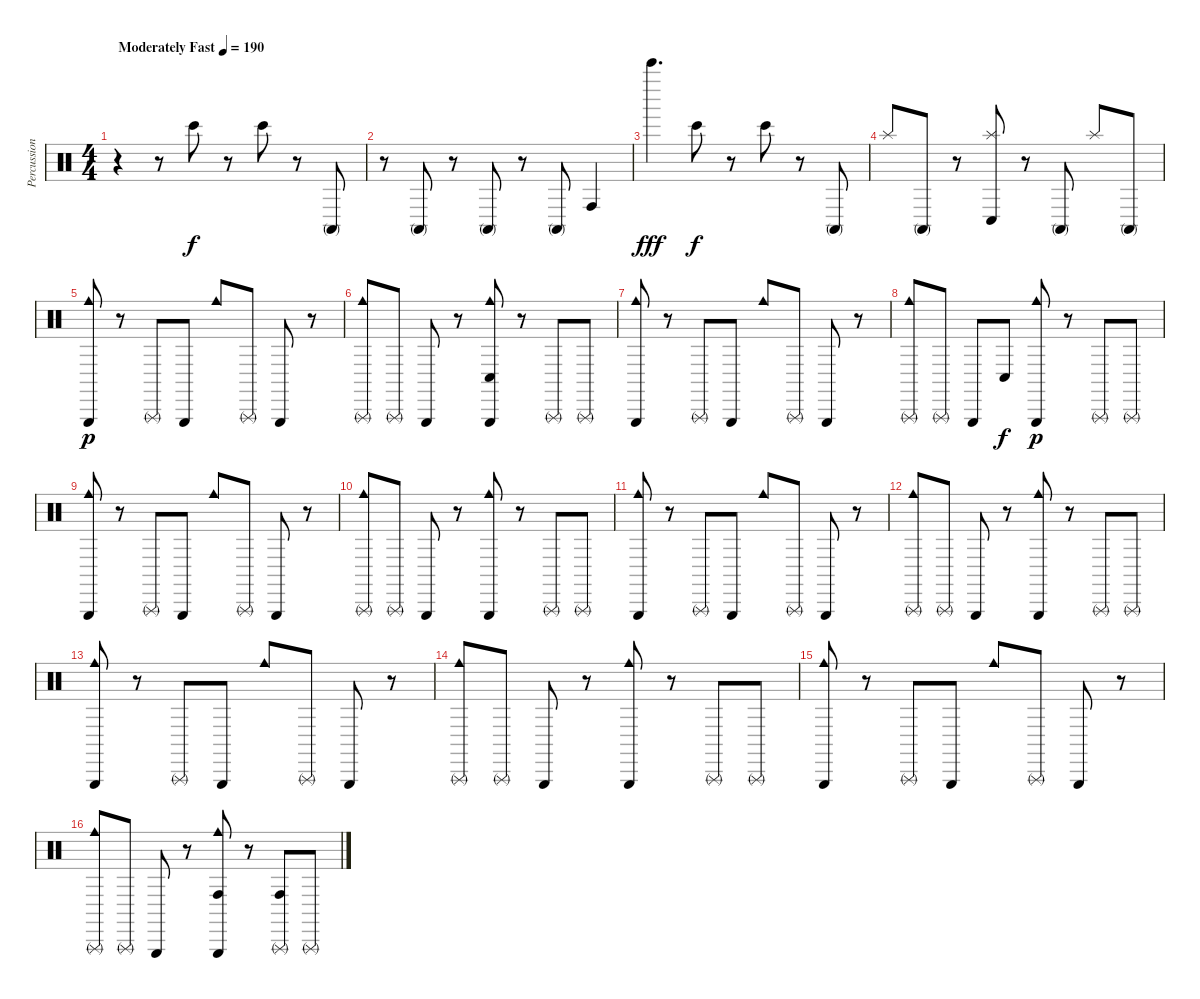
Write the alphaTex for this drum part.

\track ("Percussion" "Percussion") {instrument percussion}
\staff {score}
\articulation defaults
\ts (4 4)
\tempo (190 "Moderately Fast")
\clef neutral
\ks c
r.4{dy f} r.8 "Bongo High (hit)".8 r.8 "Bongo High (hit)".8 r.8 "Conga high (mute)".8 |
r.8 "Conga high (mute)".8 r.8 "Conga high (mute)".8 r.8 "Conga high (mute)".8 "Conga high (hit)".4 |
"Bell Tree (hit)".4{d dy fff} "Bongo High (hit)".8{dy f} r.8 "Bongo High (hit)".8 r.8 "Conga high (mute)".8 |
"Splash (hit)".8 "Conga high (mute)".8 r.8 ("Splash (hit)" "Conga low (hit)").8 r.8 "Conga high (mute)".8 "Splash (hit)".8 "Conga high (mute)".8 |
("Cowbell medium (hit)" "Triangle (hit)").8{dy p} r.8 "Triangle (rnute)".8 "Triangle (hit)".8 "Cowbell medium (hit)".8 "Triangle (rnute)".8 "Triangle (hit)".8 r.8 |
("Cowbell medium (hit)" "Triangle (rnute)").8 "Triangle (rnute)".8 "Triangle (hit)".8 r.8 ("Conga low (hit)" "Cowbell medium (hit)" "Triangle (hit)").8 r.8 "Triangle (rnute)".8 "Triangle (rnute)".8 |
("Cowbell medium (hit)" "Triangle (hit)").8 r.8 "Triangle (rnute)".8 "Triangle (hit)".8 "Cowbell medium (hit)".8 "Triangle (rnute)".8 "Triangle (hit)".8 r.8 |
("Cowbell medium (hit)" "Triangle (rnute)").8 "Triangle (rnute)".8 "Triangle (hit)".8 "Conga low (hit)".8{dy f} ("Cowbell medium (hit)" "Triangle (hit)").8{dy p} r.8 "Triangle (rnute)".8 "Triangle (rnute)".8 |
("Cowbell medium (hit)" "Triangle (hit)").8 r.8 "Triangle (rnute)".8 "Triangle (hit)".8 "Cowbell medium (hit)".8 "Triangle (rnute)".8 "Triangle (hit)".8 r.8 |
("Cowbell medium (hit)" "Triangle (rnute)").8 "Triangle (rnute)".8 "Triangle (hit)".8 r.8 ("Cowbell medium (hit)" "Triangle (hit)").8 r.8 "Triangle (rnute)".8 "Triangle (rnute)".8 |
("Cowbell medium (hit)" "Triangle (hit)").8 r.8 "Triangle (rnute)".8 "Triangle (hit)".8 "Cowbell medium (hit)".8 "Triangle (rnute)".8 "Triangle (hit)".8 r.8 |
("Cowbell medium (hit)" "Triangle (rnute)").8 "Triangle (rnute)".8 "Triangle (hit)".8 r.8 ("Cowbell medium (hit)" "Triangle (hit)").8 r.8 "Triangle (rnute)".8 "Triangle (rnute)".8 |
("Cowbell medium (hit)" "Triangle (hit)").8 r.8 "Triangle (rnute)".8 "Triangle (hit)".8 "Cowbell medium (hit)".8 "Triangle (rnute)".8 "Triangle (hit)".8 r.8 |
("Cowbell medium (hit)" "Triangle (rnute)").8 "Triangle (rnute)".8 "Triangle (hit)".8 r.8 ("Cowbell medium (hit)" "Triangle (hit)").8 r.8 "Triangle (rnute)".8 "Triangle (rnute)".8 |
("Cowbell medium (hit)" "Triangle (hit)").8 r.8 "Triangle (rnute)".8 "Triangle (hit)".8 "Cowbell medium (hit)".8 "Triangle (rnute)".8 "Triangle (hit)".8 r.8 |
("Cowbell medium (hit)" "Triangle (rnute)").8 "Triangle (rnute)".8 "Triangle (hit)".8 r.8 ("Conga high (hit)" "Cowbell medium (hit)" "Triangle (hit)").8 r.8 ("Conga high (hit)" "Triangle (rnute)").8 "Triangle (rnute)".8
